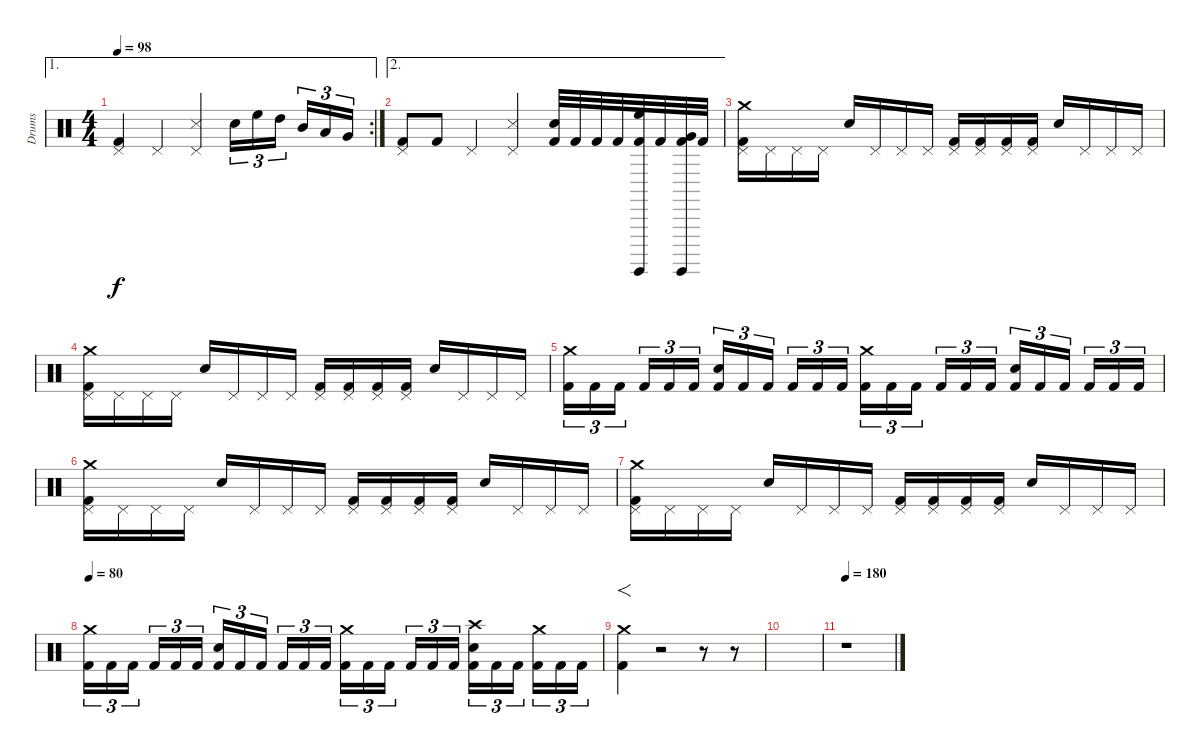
\track ("Drums" "Drums") {instrument percussion}
\staff {score}
\articulation defaults
\ae 1
\rc 2
\ts (4 4)
\tempo 98
\clef neutral
\ks c
("Pedal Hi-Hat (hit)" "Kick (hit) 2").4{dy f} "Pedal Hi-Hat (hit)".4 ("Pedal Hi-Hat (hit)" "Metronome (hit)").4 "Electric Snare (hit)".16{tu (3 2)} "High Floor Tom (hit)".16{tu (3 2)} "High Tom (hit)".16{tu (3 2)} "Mid Tom (hit)".16{tu (3 2)} "Low Tom (hit)".16{tu (3 2)} "Very Low Tom (hit)".16{tu (3 2)} |
\ae 2
("Kick (hit) 2" "Pedal Hi-Hat (hit)").8 "Kick (hit) 2".8 "Pedal Hi-Hat (hit)".4 ("Pedal Hi-Hat (hit)" "Metronome (hit)").4 ("Electric Snare (hit)" "Kick (hit) 2").32 "Kick (hit) 2".32 "Kick (hit) 2".32 "Kick (hit) 2".32 ("High Floor Tom (hit)" "Surdo (hit)" "Kick (hit) 2").32 "Kick (hit) 2".32 ("Very Low Tom (hit)" "Surdo (hit)" "Kick (hit) 2").32 "Kick (hit) 2".32 |
("Crash medium (hit)" "Kick (hit) 2" "Pedal Hi-Hat (hit)").16 "Pedal Hi-Hat (hit)".16 "Pedal Hi-Hat (hit)".16 "Pedal Hi-Hat (hit)".16 "Electric Snare (hit)".16 "Pedal Hi-Hat (hit)".16 "Pedal Hi-Hat (hit)".16 "Pedal Hi-Hat (hit)".16 ("Kick (hit) 2" "Pedal Hi-Hat (hit)").16 ("Kick (hit) 2" "Pedal Hi-Hat (hit)").16 ("Kick (hit) 2" "Pedal Hi-Hat (hit)").16 ("Kick (hit) 2" "Pedal Hi-Hat (hit)").16 "Electric Snare (hit)".16 "Pedal Hi-Hat (hit)".16 "Pedal Hi-Hat (hit)".16 "Pedal Hi-Hat (hit)".16 |
("Crash medium (hit)" "Kick (hit) 2" "Pedal Hi-Hat (hit)").16 "Pedal Hi-Hat (hit)".16 "Pedal Hi-Hat (hit)".16 "Pedal Hi-Hat (hit)".16 "Electric Snare (hit)".16 "Pedal Hi-Hat (hit)".16 "Pedal Hi-Hat (hit)".16 "Pedal Hi-Hat (hit)".16 ("Kick (hit) 2" "Pedal Hi-Hat (hit)").16 ("Kick (hit) 2" "Pedal Hi-Hat (hit)").16 ("Kick (hit) 2" "Pedal Hi-Hat (hit)").16 ("Kick (hit) 2" "Pedal Hi-Hat (hit)").16 "Electric Snare (hit)".16 "Pedal Hi-Hat (hit)".16 "Pedal Hi-Hat (hit)".16 "Pedal Hi-Hat (hit)".16 |
("Kick (hit) 2" "Crash medium (hit)").16{tu (3 2)} "Kick (hit) 2".16{tu (3 2)} "Kick (hit) 2".16{tu (3 2)} "Kick (hit) 2".16{tu (3 2)} "Kick (hit) 2".16{tu (3 2)} "Kick (hit) 2".16{tu (3 2)} ("Kick (hit) 2" "Electric Snare (hit)").16{tu (3 2)} "Kick (hit) 2".16{tu (3 2)} "Kick (hit) 2".16{tu (3 2)} "Kick (hit) 2".16{tu (3 2)} "Kick (hit) 2".16{tu (3 2)} "Kick (hit) 2".16{tu (3 2)} ("Kick (hit) 2" "Crash medium (hit)").16{tu (3 2)} "Kick (hit) 2".16{tu (3 2)} "Kick (hit) 2".16{tu (3 2)} "Kick (hit) 2".16{tu (3 2)} "Kick (hit) 2".16{tu (3 2)} "Kick (hit) 2".16{tu (3 2)} ("Kick (hit) 2" "Electric Snare (hit)").16{tu (3 2)} "Kick (hit) 2".16{tu (3 2)} "Kick (hit) 2".16{tu (3 2)} "Kick (hit) 2".16{tu (3 2)} "Kick (hit) 2".16{tu (3 2)} "Kick (hit) 2".16{tu (3 2)} |
("Crash medium (hit)" "Kick (hit) 2" "Pedal Hi-Hat (hit)").16 "Pedal Hi-Hat (hit)".16 "Pedal Hi-Hat (hit)".16 "Pedal Hi-Hat (hit)".16 "Electric Snare (hit)".16 "Pedal Hi-Hat (hit)".16 "Pedal Hi-Hat (hit)".16 "Pedal Hi-Hat (hit)".16 ("Kick (hit) 2" "Pedal Hi-Hat (hit)").16 ("Kick (hit) 2" "Pedal Hi-Hat (hit)").16 ("Kick (hit) 2" "Pedal Hi-Hat (hit)").16 ("Kick (hit) 2" "Pedal Hi-Hat (hit)").16 "Electric Snare (hit)".16 "Pedal Hi-Hat (hit)".16 "Pedal Hi-Hat (hit)".16 "Pedal Hi-Hat (hit)".16 |
("Crash medium (hit)" "Kick (hit) 2" "Pedal Hi-Hat (hit)").16 "Pedal Hi-Hat (hit)".16 "Pedal Hi-Hat (hit)".16 "Pedal Hi-Hat (hit)".16 "Electric Snare (hit)".16 "Pedal Hi-Hat (hit)".16 "Pedal Hi-Hat (hit)".16 "Pedal Hi-Hat (hit)".16 ("Kick (hit) 2" "Pedal Hi-Hat (hit)").16 ("Kick (hit) 2" "Pedal Hi-Hat (hit)").16 ("Kick (hit) 2" "Pedal Hi-Hat (hit)").16 ("Kick (hit) 2" "Pedal Hi-Hat (hit)").16 "Electric Snare (hit)".16 "Pedal Hi-Hat (hit)".16 "Pedal Hi-Hat (hit)".16 "Pedal Hi-Hat (hit)".16 |
\tempo 80
("Kick (hit) 2" "Crash medium (hit)").16{tu (3 2)} "Kick (hit) 2".16{tu (3 2)} "Kick (hit) 2".16{tu (3 2)} "Kick (hit) 2".16{tu (3 2)} "Kick (hit) 2".16{tu (3 2)} "Kick (hit) 2".16{tu (3 2)} ("Kick (hit) 2" "Electric Snare (hit)").16{tu (3 2)} "Kick (hit) 2".16{tu (3 2)} "Kick (hit) 2".16{tu (3 2)} "Kick (hit) 2".16{tu (3 2)} "Kick (hit) 2".16{tu (3 2)} "Kick (hit) 2".16{tu (3 2)} ("Kick (hit) 2" "Crash medium (hit)").16{tu (3 2)} "Kick (hit) 2".16{tu (3 2)} "Kick (hit) 2".16{tu (3 2)} "Kick (hit) 2".16{tu (3 2)} "Kick (hit) 2".16{tu (3 2)} "Kick (hit) 2".16{tu (3 2)} ("Kick (hit) 2" "Electric Snare (hit)" "Crash high (hit)").16{tu (3 2)} "Kick (hit) 2".16{tu (3 2)} "Kick (hit) 2".16{tu (3 2)} ("Kick (hit) 2" "Crash medium (hit)").16{tu (3 2)} "Kick (hit) 2".16{tu (3 2)} "Kick (hit) 2".16{tu (3 2)} |
("Crash medium (hit)" "Kick (hit) 2").4{f} r.2 r.8 r.8 |
|
\tempo 180
r.1
